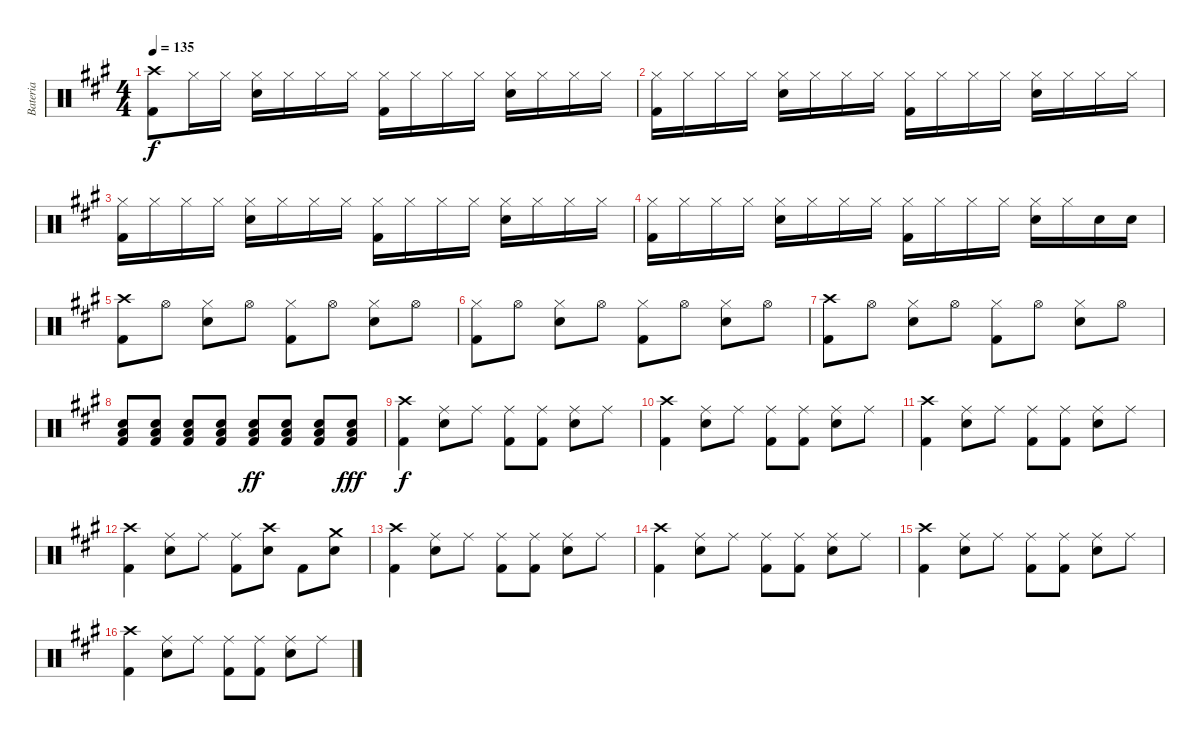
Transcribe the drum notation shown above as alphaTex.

\track ("Bateria" "Bateria") {instrument percussion}
\staff {score}
\articulation defaults
\ts (4 4)
\tempo 135
\clef neutral
\ks a
("Kick (hit) 2" "Crash high (hit)").8{dy f} "Hi-Hat (closed)".16 "Hi-Hat (closed)".16 ("Electric Snare (hit)" "Hi-Hat (closed)").16 "Hi-Hat (closed)".16 "Hi-Hat (closed)".16 "Hi-Hat (closed)".16 ("Kick (hit) 2" "Hi-Hat (closed)").16 "Hi-Hat (closed)".16 "Hi-Hat (closed)".16 "Hi-Hat (closed)".16 ("Hi-Hat (closed)" "Electric Snare (hit)").16 "Hi-Hat (closed)".16 "Hi-Hat (closed)".16 "Hi-Hat (closed)".16 |
("Hi-Hat (closed)" "Kick (hit) 2").16 "Hi-Hat (closed)".16 "Hi-Hat (closed)".16 "Hi-Hat (closed)".16 ("Electric Snare (hit)" "Hi-Hat (closed)").16 "Hi-Hat (closed)".16 "Hi-Hat (closed)".16 "Hi-Hat (closed)".16 ("Kick (hit) 2" "Hi-Hat (closed)").16 "Hi-Hat (closed)".16 "Hi-Hat (closed)".16 "Hi-Hat (closed)".16 ("Hi-Hat (closed)" "Electric Snare (hit)").16 "Hi-Hat (closed)".16 "Hi-Hat (closed)".16 "Hi-Hat (closed)".16 |
("Hi-Hat (closed)" "Kick (hit) 2").16 "Hi-Hat (closed)".16 "Hi-Hat (closed)".16 "Hi-Hat (closed)".16 ("Electric Snare (hit)" "Hi-Hat (closed)").16 "Hi-Hat (closed)".16 "Hi-Hat (closed)".16 "Hi-Hat (closed)".16 ("Kick (hit) 2" "Hi-Hat (closed)").16 "Hi-Hat (closed)".16 "Hi-Hat (closed)".16 "Hi-Hat (closed)".16 ("Hi-Hat (closed)" "Electric Snare (hit)").16 "Hi-Hat (closed)".16 "Hi-Hat (closed)".16 "Hi-Hat (closed)".16 |
("Hi-Hat (closed)" "Kick (hit) 2").16 "Hi-Hat (closed)".16 "Hi-Hat (closed)".16 "Hi-Hat (closed)".16 ("Electric Snare (hit)" "Hi-Hat (closed)").16 "Hi-Hat (closed)".16 "Hi-Hat (closed)".16 "Hi-Hat (closed)".16 ("Kick (hit) 2" "Hi-Hat (closed)").16 "Hi-Hat (closed)".16 "Hi-Hat (closed)".16 "Hi-Hat (closed)".16 ("Hi-Hat (closed)" "Electric Snare (hit)").16 "Hi-Hat (closed)".16 "Electric Snare (hit)".16 "Electric Snare (hit)".16 |
("Kick (hit) 2" "Crash high (hit)").8 "Hi-Hat (open)".8 ("Electric Snare (hit)" "Hi-Hat (closed)").8 "Hi-Hat (open)".8 ("Kick (hit) 2" "Hi-Hat (closed)").8 "Hi-Hat (open)".8 ("Electric Snare (hit)" "Hi-Hat (closed)").8 "Hi-Hat (open)".8 |
("Kick (hit) 2" "Hi-Hat (closed)").8 "Hi-Hat (open)".8 ("Electric Snare (hit)" "Hi-Hat (closed)").8 "Hi-Hat (open)".8 ("Kick (hit) 2" "Hi-Hat (closed)").8 "Hi-Hat (open)".8 ("Electric Snare (hit)" "Hi-Hat (closed)").8 "Hi-Hat (open)".8 |
("Kick (hit) 2" "Crash high (hit)").8 "Hi-Hat (open)".8 ("Electric Snare (hit)" "Hi-Hat (closed)").8 "Hi-Hat (open)".8 ("Kick (hit) 2" "Hi-Hat (closed)").8 "Hi-Hat (open)".8 ("Electric Snare (hit)" "Hi-Hat (closed)").8 "Hi-Hat (open)".8 |
("Electric Snare (hit)" "Kick (hit) 2" "Low Floor Tom (hit)").8 ("Electric Snare (hit)" "Kick (hit) 2" "Low Floor Tom (hit)").8 ("Electric Snare (hit)" "Kick (hit) 2" "Low Floor Tom (hit)").8 ("Electric Snare (hit)" "Kick (hit) 2" "Low Floor Tom (hit)").8 ("Electric Snare (hit)" "Kick (hit) 2" "Low Floor Tom (hit)").8{dy ff} ("Electric Snare (hit)" "Kick (hit) 2" "Low Floor Tom (hit)").8 ("Electric Snare (hit)" "Kick (hit) 2" "Low Floor Tom (hit)").8 ("Electric Snare (hit)" "Kick (hit) 2" "Low Floor Tom (hit)").8{dy fff} |
("Kick (hit) 2" "Crash high (hit)").4{dy f} ("Electric Snare (hit)" "Ride (middle)").8 "Ride (middle)".8 ("Ride (middle)" "Kick (hit) 2").8 ("Ride (middle)" "Kick (hit) 2").8 ("Ride (middle)" "Electric Snare (hit)").8 "Ride (middle)".8 |
("Kick (hit) 2" "Crash high (hit)").4 ("Electric Snare (hit)" "Ride (middle)").8 "Ride (middle)".8 ("Ride (middle)" "Kick (hit) 2").8 ("Ride (middle)" "Kick (hit) 2").8 ("Ride (middle)" "Electric Snare (hit)").8 "Ride (middle)".8 |
("Kick (hit) 2" "Crash high (hit)").4 ("Electric Snare (hit)" "Ride (middle)").8 "Ride (middle)".8 ("Ride (middle)" "Kick (hit) 2").8 ("Ride (middle)" "Kick (hit) 2").8 ("Ride (middle)" "Electric Snare (hit)").8 "Ride (middle)".8 |
("Kick (hit) 2" "Crash high (hit)").4 ("Electric Snare (hit)" "Ride (middle)").8 "Ride (middle)".8 ("Ride (middle)" "Kick (hit) 2").8 ("Electric Snare (hit)" "Crash high (hit)").8 "Kick (hit) 2".8 ("Electric Snare (hit)" "Crash medium (hit)").8 |
("Kick (hit) 2" "Crash high (hit)").4 ("Electric Snare (hit)" "Ride (middle)").8 "Ride (middle)".8 ("Ride (middle)" "Kick (hit) 2").8 ("Ride (middle)" "Kick (hit) 2").8 ("Ride (middle)" "Electric Snare (hit)").8 "Ride (middle)".8 |
("Kick (hit) 2" "Crash high (hit)").4 ("Electric Snare (hit)" "Ride (middle)").8 "Ride (middle)".8 ("Ride (middle)" "Kick (hit) 2").8 ("Ride (middle)" "Kick (hit) 2").8 ("Ride (middle)" "Electric Snare (hit)").8 "Ride (middle)".8 |
("Kick (hit) 2" "Crash high (hit)").4 ("Electric Snare (hit)" "Ride (middle)").8 "Ride (middle)".8 ("Ride (middle)" "Kick (hit) 2").8 ("Ride (middle)" "Kick (hit) 2").8 ("Ride (middle)" "Electric Snare (hit)").8 "Ride (middle)".8 |
("Kick (hit) 2" "Crash high (hit)").4 ("Electric Snare (hit)" "Ride (middle)").8 "Ride (middle)".8 ("Ride (middle)" "Kick (hit) 2").8 ("Ride (middle)" "Kick (hit) 2").8 ("Ride (middle)" "Electric Snare (hit)").8 "Ride (middle)".8
